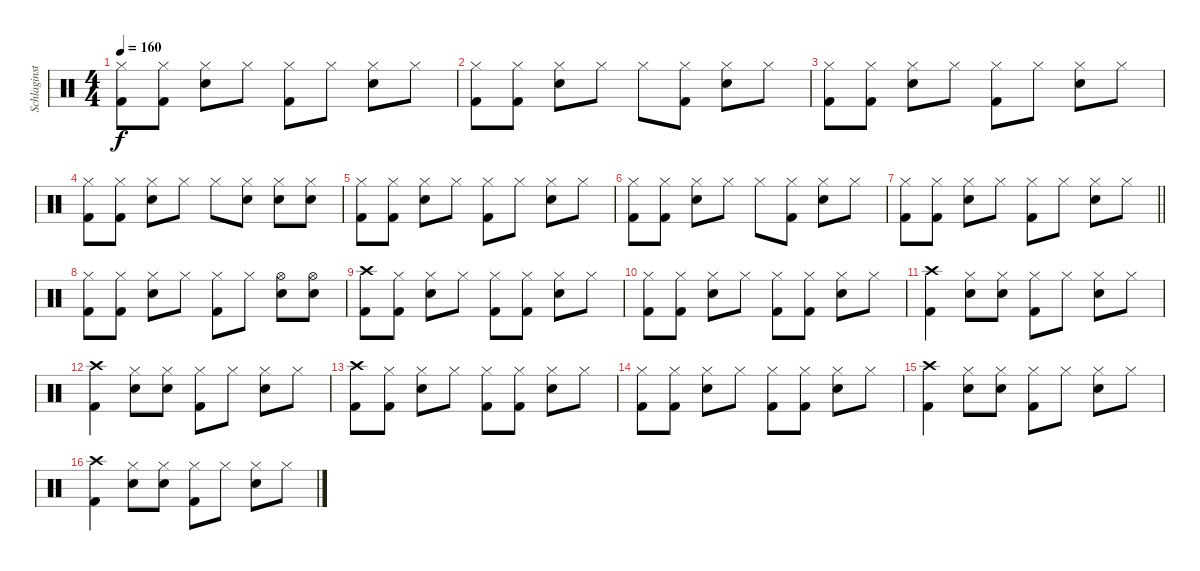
\track ("Schlaginstrumente - Auswahl" "Schlaginst") {instrument percussion}
\staff {score}
\articulation defaults
\ts (4 4)
\tempo 160
\clef neutral
\ks c
("Hi-Hat (closed)" "Kick (hit) 2").8{dy f} ("Hi-Hat (closed)" "Kick (hit) 2").8 ("Hi-Hat (closed)" "Electric Snare (hit)").8 "Hi-Hat (closed)".8 ("Hi-Hat (closed)" "Kick (hit) 2").8 "Hi-Hat (closed)".8 ("Hi-Hat (closed)" "Electric Snare (hit)").8 "Hi-Hat (closed)".8 |
("Hi-Hat (closed)" "Kick (hit) 2").8 ("Hi-Hat (closed)" "Kick (hit) 2").8 ("Hi-Hat (closed)" "Electric Snare (hit)").8 "Hi-Hat (closed)".8 "Hi-Hat (closed)".8 ("Hi-Hat (closed)" "Kick (hit) 2").8 ("Hi-Hat (closed)" "Electric Snare (hit)").8 "Hi-Hat (closed)".8 |
("Hi-Hat (closed)" "Kick (hit) 2").8 ("Hi-Hat (closed)" "Kick (hit) 2").8 ("Hi-Hat (closed)" "Electric Snare (hit)").8 "Hi-Hat (closed)".8 ("Hi-Hat (closed)" "Kick (hit) 2").8 "Hi-Hat (closed)".8 ("Hi-Hat (closed)" "Electric Snare (hit)").8 "Hi-Hat (closed)".8 |
("Hi-Hat (closed)" "Kick (hit) 2").8 ("Hi-Hat (closed)" "Kick (hit) 2").8 ("Hi-Hat (closed)" "Electric Snare (hit)").8 "Hi-Hat (closed)".8 "Hi-Hat (closed)".8 ("Hi-Hat (closed)" "Electric Snare (hit)").8 ("Hi-Hat (closed)" "Electric Snare (hit)").8 ("Hi-Hat (closed)" "Electric Snare (hit)").8 |
("Hi-Hat (closed)" "Kick (hit) 2").8 ("Hi-Hat (closed)" "Kick (hit) 2").8 ("Hi-Hat (closed)" "Electric Snare (hit)").8 "Hi-Hat (closed)".8 ("Hi-Hat (closed)" "Kick (hit) 2").8 "Hi-Hat (closed)".8 ("Hi-Hat (closed)" "Electric Snare (hit)").8 "Hi-Hat (closed)".8 |
("Hi-Hat (closed)" "Kick (hit) 2").8 ("Hi-Hat (closed)" "Kick (hit) 2").8 ("Hi-Hat (closed)" "Electric Snare (hit)").8 "Hi-Hat (closed)".8 "Hi-Hat (closed)".8 ("Hi-Hat (closed)" "Kick (hit) 2").8 ("Hi-Hat (closed)" "Electric Snare (hit)").8 "Hi-Hat (closed)".8 |
\barLineRight lightlight
("Hi-Hat (closed)" "Kick (hit) 2").8 ("Hi-Hat (closed)" "Kick (hit) 2").8 ("Hi-Hat (closed)" "Electric Snare (hit)").8 "Hi-Hat (closed)".8 ("Hi-Hat (closed)" "Kick (hit) 2").8 "Hi-Hat (closed)".8 ("Hi-Hat (closed)" "Electric Snare (hit)").8 "Hi-Hat (closed)".8 |
("Hi-Hat (closed)" "Kick (hit) 2").8 ("Hi-Hat (closed)" "Kick (hit) 2").8 ("Hi-Hat (closed)" "Electric Snare (hit)").8 "Hi-Hat (closed)".8 ("Hi-Hat (closed)" "Kick (hit) 2").8 "Hi-Hat (closed)".8 ("Hi-Hat (open)" "Electric Snare (hit)").8 ("Hi-Hat (open)" "Electric Snare (hit)").8 |
("Crash high (hit)" "Kick (hit) 2").8 ("Hi-Hat (closed)" "Kick (hit) 2").8 ("Hi-Hat (closed)" "Electric Snare (hit)").8 "Hi-Hat (closed)".8 ("Hi-Hat (closed)" "Kick (hit) 2").8 ("Hi-Hat (closed)" "Kick (hit) 2").8 ("Hi-Hat (closed)" "Electric Snare (hit)").8 "Hi-Hat (closed)".8 |
("Hi-Hat (closed)" "Kick (hit) 2").8 ("Hi-Hat (closed)" "Kick (hit) 2").8 ("Hi-Hat (closed)" "Electric Snare (hit)").8 "Hi-Hat (closed)".8 ("Hi-Hat (closed)" "Kick (hit) 2").8 ("Hi-Hat (closed)" "Kick (hit) 2").8 ("Hi-Hat (closed)" "Electric Snare (hit)").8 "Hi-Hat (closed)".8 |
("Crash high (hit)" "Kick (hit) 2").4 ("Hi-Hat (closed)" "Electric Snare (hit)").8 ("Hi-Hat (closed)" "Electric Snare (hit)").8 ("Hi-Hat (closed)" "Kick (hit) 2").8 "Hi-Hat (closed)".8 ("Hi-Hat (closed)" "Electric Snare (hit)").8 "Hi-Hat (closed)".8 |
("Crash high (hit)" "Kick (hit) 2").4 ("Hi-Hat (closed)" "Electric Snare (hit)").8 ("Hi-Hat (closed)" "Electric Snare (hit)").8 ("Hi-Hat (closed)" "Kick (hit) 2").8 "Hi-Hat (closed)".8 ("Hi-Hat (closed)" "Electric Snare (hit)").8 "Hi-Hat (closed)".8 |
("Crash high (hit)" "Kick (hit) 2").8 ("Hi-Hat (closed)" "Kick (hit) 2").8 ("Hi-Hat (closed)" "Electric Snare (hit)").8 "Hi-Hat (closed)".8 ("Hi-Hat (closed)" "Kick (hit) 2").8 ("Hi-Hat (closed)" "Kick (hit) 2").8 ("Hi-Hat (closed)" "Electric Snare (hit)").8 "Hi-Hat (closed)".8 |
("Hi-Hat (closed)" "Kick (hit) 2").8 ("Hi-Hat (closed)" "Kick (hit) 2").8 ("Hi-Hat (closed)" "Electric Snare (hit)").8 "Hi-Hat (closed)".8 ("Hi-Hat (closed)" "Kick (hit) 2").8 ("Hi-Hat (closed)" "Kick (hit) 2").8 ("Hi-Hat (closed)" "Electric Snare (hit)").8 "Hi-Hat (closed)".8 |
("Crash high (hit)" "Kick (hit) 2").4 ("Hi-Hat (closed)" "Electric Snare (hit)").8 ("Hi-Hat (closed)" "Electric Snare (hit)").8 ("Hi-Hat (closed)" "Kick (hit) 2").8 "Hi-Hat (closed)".8 ("Hi-Hat (closed)" "Electric Snare (hit)").8 "Hi-Hat (closed)".8 |
("Crash high (hit)" "Kick (hit) 2").4 ("Hi-Hat (closed)" "Electric Snare (hit)").8 ("Hi-Hat (closed)" "Electric Snare (hit)").8 ("Hi-Hat (closed)" "Kick (hit) 2").8 "Hi-Hat (closed)".8 ("Hi-Hat (closed)" "Electric Snare (hit)").8 "Hi-Hat (closed)".8
